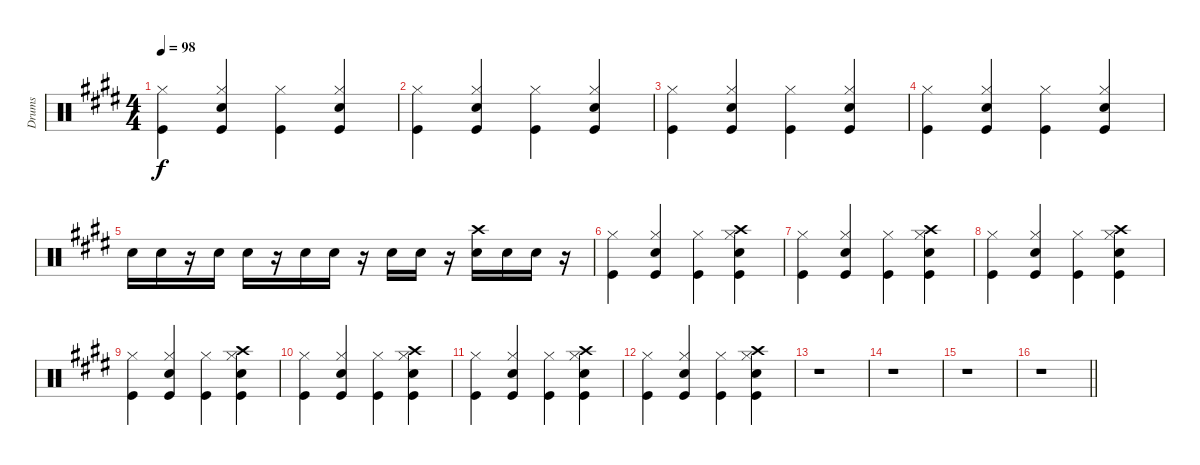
\track ("Drums" "Drums") {instrument percussion}
\staff {score}
\articulation defaults
\ts (4 4)
\tempo 98
\clef neutral
\ks c#minor
("Kick (hit)" "Hi-Hat (closed)").4{dy f} ("Kick (hit)" "Snare (hit) 2" "Hi-Hat (closed)").4 ("Kick (hit)" "Hi-Hat (closed)").4 ("Kick (hit)" "Snare (hit) 2" "Hi-Hat (closed)").4 |
("Kick (hit)" "Hi-Hat (closed)").4 ("Kick (hit)" "Snare (hit) 2" "Hi-Hat (closed)").4 ("Kick (hit)" "Hi-Hat (closed)").4 ("Kick (hit)" "Snare (hit) 2" "Hi-Hat (closed)").4 |
("Kick (hit)" "Hi-Hat (closed)").4 ("Kick (hit)" "Snare (hit) 2" "Hi-Hat (closed)").4 ("Kick (hit)" "Hi-Hat (closed)").4 ("Kick (hit)" "Snare (hit) 2" "Hi-Hat (closed)").4 |
("Kick (hit)" "Hi-Hat (closed)").4 ("Kick (hit)" "Snare (hit) 2" "Hi-Hat (closed)").4 ("Kick (hit)" "Hi-Hat (closed)").4 ("Kick (hit)" "Snare (hit) 2" "Hi-Hat (closed)").4 |
"Snare (hit) 2".16 "Snare (hit) 2".16 r.16 "Snare (hit) 2".16 "Snare (hit) 2".16 r.16 "Snare (hit) 2".16 "Snare (hit) 2".16 r.16 "Snare (hit) 2".16 "Snare (hit) 2".16 r.16 ("Snare (hit) 2" "Crash high (hit)").16 "Snare (hit) 2".16 "Snare (hit) 2".16 r.16 |
("Kick (hit)" "Hi-Hat (closed)").4 ("Kick (hit)" "Snare (hit) 2" "Hi-Hat (closed)").4 ("Kick (hit)" "Hi-Hat (closed)").4 ("Kick (hit)" "Snare (hit) 2" "Hi-Hat (closed)" "Crash high (hit)").4 |
("Kick (hit)" "Hi-Hat (closed)").4 ("Kick (hit)" "Snare (hit) 2" "Hi-Hat (closed)").4 ("Kick (hit)" "Hi-Hat (closed)").4 ("Kick (hit)" "Snare (hit) 2" "Hi-Hat (closed)" "Crash high (hit)").4 |
("Kick (hit)" "Hi-Hat (closed)").4 ("Kick (hit)" "Snare (hit) 2" "Hi-Hat (closed)").4 ("Kick (hit)" "Hi-Hat (closed)").4 ("Kick (hit)" "Snare (hit) 2" "Hi-Hat (closed)" "Crash high (hit)").4 |
("Kick (hit)" "Hi-Hat (closed)").4 ("Kick (hit)" "Snare (hit) 2" "Hi-Hat (closed)").4 ("Kick (hit)" "Hi-Hat (closed)").4 ("Kick (hit)" "Snare (hit) 2" "Hi-Hat (closed)" "Crash high (hit)").4 |
("Kick (hit)" "Hi-Hat (closed)").4 ("Kick (hit)" "Snare (hit) 2" "Hi-Hat (closed)").4 ("Kick (hit)" "Hi-Hat (closed)").4 ("Kick (hit)" "Snare (hit) 2" "Hi-Hat (closed)" "Crash high (hit)").4 |
("Kick (hit)" "Hi-Hat (closed)").4 ("Kick (hit)" "Snare (hit) 2" "Hi-Hat (closed)").4 ("Kick (hit)" "Hi-Hat (closed)").4 ("Kick (hit)" "Snare (hit) 2" "Hi-Hat (closed)" "Crash high (hit)").4 |
("Kick (hit)" "Hi-Hat (closed)").4 ("Kick (hit)" "Snare (hit) 2" "Hi-Hat (closed)").4 ("Kick (hit)" "Hi-Hat (closed)").4 ("Kick (hit)" "Snare (hit) 2" "Hi-Hat (closed)" "Crash high (hit)").4 |
r.1 |
r.1 |
r.1 |
\barLineRight lightlight
r.1
